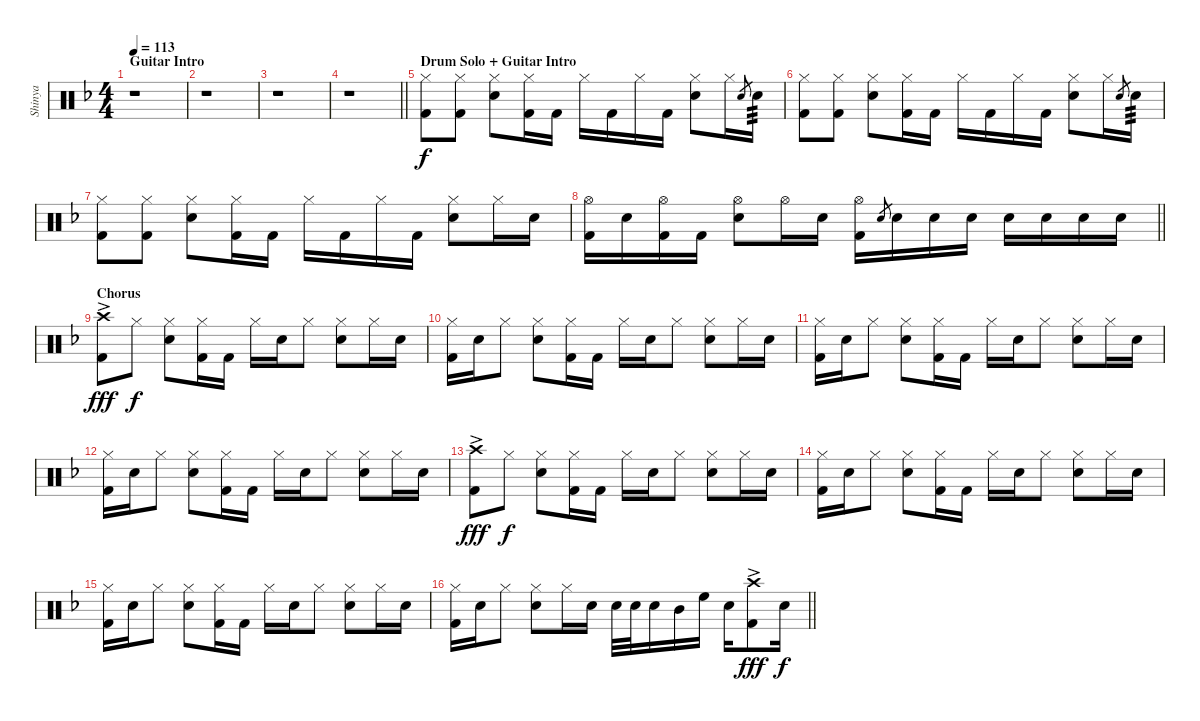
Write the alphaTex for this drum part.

\track ("Shinya" "Shinya") {instrument percussion}
\staff {score}
\articulation defaults
\ts (4 4)
\section ("" "Guitar Intro")
\tempo 113
\clef neutral
\ks f
r.1{dy f} |
r.1 |
r.1 |
\barLineRight lightlight
r.1 |
\section ("" "Drum Solo + Guitar Intro")
("Hi-Hat (closed)" "Kick (hit) 2").8 ("Hi-Hat (closed)" "Kick (hit) 2").8 ("Hi-Hat (closed)" "Snare (hit) 2").8 ("Hi-Hat (closed)" "Kick (hit) 2").16 "Kick (hit) 2".16 "Hi-Hat (closed)".16 "Kick (hit) 2".16 "Hi-Hat (closed)".16 "Kick (hit) 2".16 ("Hi-Hat (closed)" "Snare (hit) 2").8 "Hi-Hat (closed)".16 "Snare (hit) 2".8{gr} "Snare (hit) 2".16{tp 3} |
("Hi-Hat (closed)" "Kick (hit) 2").8 ("Hi-Hat (closed)" "Kick (hit) 2").8 ("Hi-Hat (closed)" "Snare (hit) 2").8 ("Hi-Hat (closed)" "Kick (hit) 2").16 "Kick (hit) 2".16 "Hi-Hat (closed)".16 "Kick (hit) 2".16 "Hi-Hat (closed)".16 "Kick (hit) 2".16 ("Hi-Hat (closed)" "Snare (hit) 2").8 "Hi-Hat (closed)".16 "Snare (hit) 2".8{gr} "Snare (hit) 2".16{tp 3} |
("Hi-Hat (closed)" "Kick (hit) 2").8 ("Hi-Hat (closed)" "Kick (hit) 2").8 ("Hi-Hat (closed)" "Snare (hit) 2").8 ("Hi-Hat (closed)" "Kick (hit) 2").16 "Kick (hit) 2".16 "Hi-Hat (closed)".16 "Kick (hit) 2".16 "Hi-Hat (closed)".16 "Kick (hit) 2".16 ("Hi-Hat (closed)" "Snare (hit) 2").8 "Hi-Hat (closed)".16 "Snare (hit) 2".16 |
\barLineRight lightlight
("Hi-Hat (open)" "Kick (hit) 2").16 "Snare (hit) 2".16 ("Hi-Hat (open)" "Kick (hit) 2").16 "Kick (hit) 2".16 ("Hi-Hat (open)" "Snare (hit) 2").8 "Hi-Hat (open)".16 "Snare (hit) 2".16 ("Hi-Hat (open)" "Kick (hit) 2").16 "Snare (hit) 2".8{gr} "Snare (hit) 2".16 "Snare (hit) 2".16 "Snare (hit) 2".16 "Snare (hit) 2".16 "Snare (hit) 2".16 "Snare (hit) 2".16 "Snare (hit) 2".16 |
\section ("" "Chorus")
("Crash high (hit)"{ac} "Kick (hit) 2").8{dy fff} "Hi-Hat (closed)".8{dy f} ("Hi-Hat (closed)" "Snare (hit) 2").8 ("Hi-Hat (closed)" "Kick (hit) 2").16 "Kick (hit) 2".16 "Hi-Hat (closed)".16 "Snare (hit) 2".16 "Hi-Hat (closed)".8 ("Hi-Hat (closed)" "Snare (hit) 2").8 "Hi-Hat (closed)".16 "Snare (hit) 2".16 |
("Hi-Hat (closed)" "Kick (hit) 2").16 "Snare (hit) 2".16 "Hi-Hat (closed)".8 ("Hi-Hat (closed)" "Snare (hit) 2").8 ("Hi-Hat (closed)" "Kick (hit) 2").16 "Kick (hit) 2".16 "Hi-Hat (closed)".16 "Snare (hit) 2".16 "Hi-Hat (closed)".8 ("Hi-Hat (closed)" "Snare (hit) 2").8 "Hi-Hat (closed)".16 "Snare (hit) 2".16 |
("Hi-Hat (closed)" "Kick (hit) 2").16 "Snare (hit) 2".16 "Hi-Hat (closed)".8 ("Hi-Hat (closed)" "Snare (hit) 2").8 ("Hi-Hat (closed)" "Kick (hit) 2").16 "Kick (hit) 2".16 "Hi-Hat (closed)".16 "Snare (hit) 2".16 "Hi-Hat (closed)".8 ("Hi-Hat (closed)" "Snare (hit) 2").8 "Hi-Hat (closed)".16 "Snare (hit) 2".16 |
("Hi-Hat (closed)" "Kick (hit) 2").16 "Snare (hit) 2".16 "Hi-Hat (closed)".8 ("Hi-Hat (closed)" "Snare (hit) 2").8 ("Hi-Hat (closed)" "Kick (hit) 2").16 "Kick (hit) 2".16 "Hi-Hat (closed)".16 "Snare (hit) 2".16 "Hi-Hat (closed)".8 ("Hi-Hat (closed)" "Snare (hit) 2").8 "Hi-Hat (closed)".16 "Snare (hit) 2".16 |
("Crash high (hit)"{ac} "Kick (hit) 2").8{dy fff} "Hi-Hat (closed)".8{dy f} ("Hi-Hat (closed)" "Snare (hit) 2").8 ("Hi-Hat (closed)" "Kick (hit) 2").16 "Kick (hit) 2".16 "Hi-Hat (closed)".16 "Snare (hit) 2".16 "Hi-Hat (closed)".8 ("Hi-Hat (closed)" "Snare (hit) 2").8 "Hi-Hat (closed)".16 "Snare (hit) 2".16 |
("Hi-Hat (closed)" "Kick (hit) 2").16 "Snare (hit) 2".16 "Hi-Hat (closed)".8 ("Hi-Hat (closed)" "Snare (hit) 2").8 ("Hi-Hat (closed)" "Kick (hit) 2").16 "Kick (hit) 2".16 "Hi-Hat (closed)".16 "Snare (hit) 2".16 "Hi-Hat (closed)".8 ("Hi-Hat (closed)" "Snare (hit) 2").8 "Hi-Hat (closed)".16 "Snare (hit) 2".16 |
("Hi-Hat (closed)" "Kick (hit) 2").16 "Snare (hit) 2".16 "Hi-Hat (closed)".8 ("Hi-Hat (closed)" "Snare (hit) 2").8 ("Hi-Hat (closed)" "Kick (hit) 2").16 "Kick (hit) 2".16 "Hi-Hat (closed)".16 "Snare (hit) 2".16 "Hi-Hat (closed)".8 ("Hi-Hat (closed)" "Snare (hit) 2").8 "Hi-Hat (closed)".16 "Snare (hit) 2".16 |
\barLineRight lightlight
("Hi-Hat (closed)" "Kick (hit) 2").16 "Snare (hit) 2".16 "Hi-Hat (closed)".8 ("Hi-Hat (closed)" "Snare (hit) 2").8 "Hi-Hat (closed)".16 "Snare (hit) 2".16 "Snare (hit) 2".32 "Snare (hit) 2".32 "Snare (hit) 2".16 "Mid Tom (hit)".16 "High Floor Tom (hit)".16 "Snare (hit) 2".16 ("Crash high (hit)"{ac} "Kick (hit) 2").8{dy fff} "Snare (hit) 2".16{dy f}
